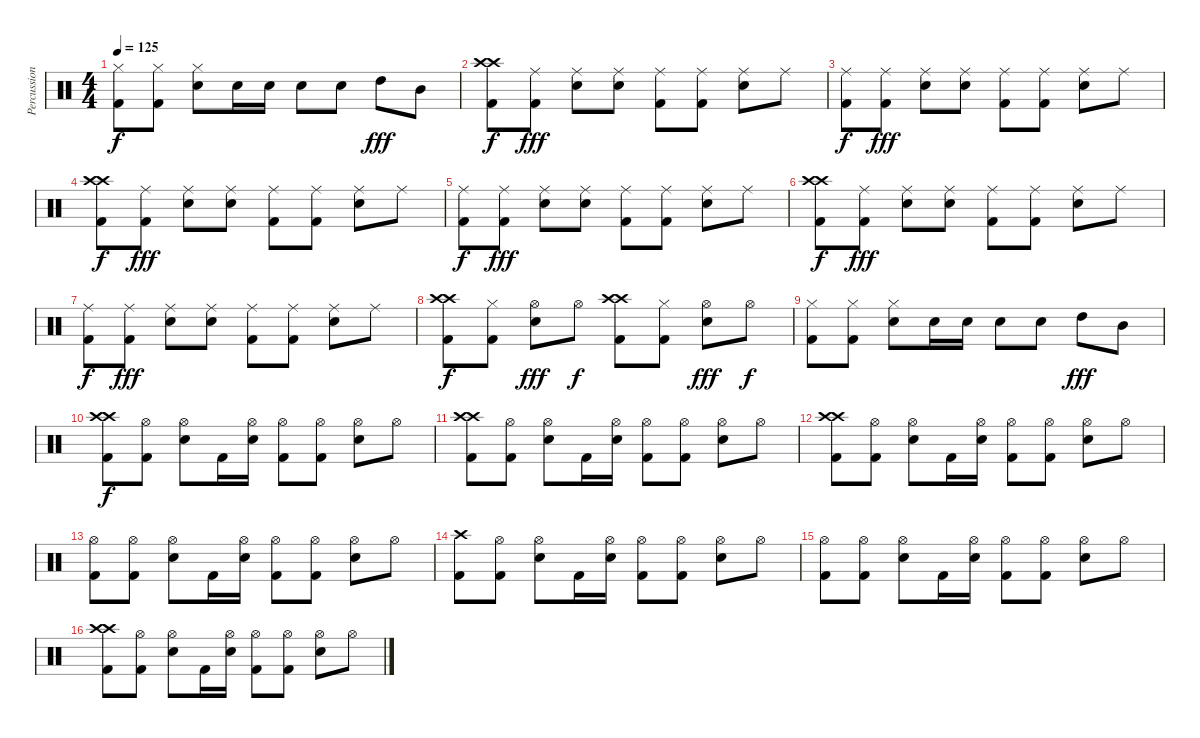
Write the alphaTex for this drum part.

\track ("Percussion" "Percussion") {instrument percussion}
\staff {score}
\articulation defaults
\ts (4 4)
\tempo 125
\clef neutral
\ks c
("Hi-Hat (closed)" "Kick (hit) 2").8{dy f} ("Hi-Hat (closed)" "Kick (hit) 2").8 ("Hi-Hat (closed)" "Electric Snare (hit)").8 "Electric Snare (hit)".16 "Electric Snare (hit)".16 "Electric Snare (hit)".8 "Electric Snare (hit)".8 "High Tom (hit)".8{dy fff} "Mid Tom (hit)".8 |
("Crash high (hit)" "Kick (hit) 2" "Crash high (hit)").8{dy f} ("Ride (middle)" "Kick (hit) 2").8{dy fff} ("Ride (middle)" "Electric Snare (hit)").8 ("Ride (middle)" "Electric Snare (hit)").8 ("Ride (middle)" "Kick (hit) 2").8 ("Ride (middle)" "Kick (hit) 2").8 ("Ride (middle)" "Electric Snare (hit)").8 "Ride (middle)".8 |
("Ride (middle)" "Kick (hit) 2").8{dy f} ("Ride (middle)" "Kick (hit) 2").8{dy fff} ("Ride (middle)" "Electric Snare (hit)").8 ("Ride (middle)" "Electric Snare (hit)").8 ("Ride (middle)" "Kick (hit) 2").8 ("Ride (middle)" "Kick (hit) 2").8 ("Ride (middle)" "Electric Snare (hit)").8 "Ride (middle)".8 |
("Crash high (hit)" "Kick (hit) 2" "Crash high (hit)").8{dy f} ("Ride (middle)" "Kick (hit) 2").8{dy fff} ("Ride (middle)" "Electric Snare (hit)").8 ("Ride (middle)" "Electric Snare (hit)").8 ("Ride (middle)" "Kick (hit) 2").8 ("Ride (middle)" "Kick (hit) 2").8 ("Ride (middle)" "Electric Snare (hit)").8 "Ride (middle)".8 |
("Ride (middle)" "Kick (hit) 2").8{dy f} ("Ride (middle)" "Kick (hit) 2").8{dy fff} ("Ride (middle)" "Electric Snare (hit)").8 ("Ride (middle)" "Electric Snare (hit)").8 ("Ride (middle)" "Kick (hit) 2").8 ("Ride (middle)" "Kick (hit) 2").8 ("Ride (middle)" "Electric Snare (hit)").8 "Ride (middle)".8 |
("Crash high (hit)" "Kick (hit) 2" "Crash high (hit)").8{dy f} ("Ride (middle)" "Kick (hit) 2").8{dy fff} ("Ride (middle)" "Electric Snare (hit)").8 ("Ride (middle)" "Electric Snare (hit)").8 ("Ride (middle)" "Kick (hit) 2").8 ("Ride (middle)" "Kick (hit) 2").8 ("Ride (middle)" "Electric Snare (hit)").8 "Ride (middle)".8 |
("Ride (middle)" "Kick (hit) 2").8{dy f} ("Ride (middle)" "Kick (hit) 2").8{dy fff} ("Ride (middle)" "Electric Snare (hit)").8 ("Ride (middle)" "Electric Snare (hit)").8 ("Ride (middle)" "Kick (hit) 2").8 ("Ride (middle)" "Kick (hit) 2").8 ("Ride (middle)" "Electric Snare (hit)").8 "Ride (middle)".8 |
("Crash high (hit)" "Kick (hit) 2" "Crash high (hit)").8{dy f} ("Hi-Hat (closed)" "Kick (hit) 2").8 ("Hi-Hat (open)" "Electric Snare (hit)").8{dy fff} "Hi-Hat (open)".8{dy f} ("Crash high (hit)" "Kick (hit) 2" "Crash high (hit)").8 ("Hi-Hat (closed)" "Kick (hit) 2").8 ("Hi-Hat (open)" "Electric Snare (hit)").8{dy fff} "Hi-Hat (open)".8{dy f} |
("Hi-Hat (closed)" "Kick (hit) 2").8 ("Hi-Hat (closed)" "Kick (hit) 2").8 ("Hi-Hat (closed)" "Electric Snare (hit)").8 "Electric Snare (hit)".16 "Electric Snare (hit)".16 "Electric Snare (hit)".8 "Electric Snare (hit)".8 "High Tom (hit)".8{dy fff} "Mid Tom (hit)".8 |
("Crash high (hit)" "Kick (hit) 2" "Crash high (hit)").8{dy f} ("Hi-Hat (open)" "Kick (hit) 2").8 ("Hi-Hat (open)" "Electric Snare (hit)").8 "Kick (hit) 2".16 ("Hi-Hat (open)" "Electric Snare (hit)").16 ("Hi-Hat (open)" "Kick (hit) 2").8 ("Hi-Hat (open)" "Kick (hit) 2").8 ("Hi-Hat (open)" "Electric Snare (hit)").8 "Hi-Hat (open)".8 |
("Crash high (hit)" "Kick (hit) 2" "Crash high (hit)").8 ("Hi-Hat (open)" "Kick (hit) 2").8 ("Hi-Hat (open)" "Electric Snare (hit)").8 "Kick (hit) 2".16 ("Hi-Hat (open)" "Electric Snare (hit)").16 ("Hi-Hat (open)" "Kick (hit) 2").8 ("Hi-Hat (open)" "Kick (hit) 2").8 ("Hi-Hat (open)" "Electric Snare (hit)").8 "Hi-Hat (open)".8 |
("Crash high (hit)" "Kick (hit) 2" "Crash high (hit)").8 ("Hi-Hat (open)" "Kick (hit) 2").8 ("Hi-Hat (open)" "Electric Snare (hit)").8 "Kick (hit) 2".16 ("Hi-Hat (open)" "Electric Snare (hit)").16 ("Hi-Hat (open)" "Kick (hit) 2").8 ("Hi-Hat (open)" "Kick (hit) 2").8 ("Hi-Hat (open)" "Electric Snare (hit)").8 "Hi-Hat (open)".8 |
("Hi-Hat (open)" "Kick (hit) 2").8 ("Hi-Hat (open)" "Kick (hit) 2").8 ("Hi-Hat (open)" "Electric Snare (hit)").8 "Kick (hit) 2".16 ("Hi-Hat (open)" "Electric Snare (hit)").16 ("Hi-Hat (open)" "Kick (hit) 2").8 ("Hi-Hat (open)" "Kick (hit) 2").8 ("Hi-Hat (open)" "Electric Snare (hit)").8 "Hi-Hat (open)".8 |
("Crash high (hit)" "Kick (hit) 2").8 ("Hi-Hat (open)" "Kick (hit) 2").8 ("Hi-Hat (open)" "Electric Snare (hit)").8 "Kick (hit) 2".16 ("Hi-Hat (open)" "Electric Snare (hit)").16 ("Hi-Hat (open)" "Kick (hit) 2").8 ("Hi-Hat (open)" "Kick (hit) 2").8 ("Hi-Hat (open)" "Electric Snare (hit)").8 "Hi-Hat (open)".8 |
("Hi-Hat (open)" "Kick (hit) 2").8 ("Hi-Hat (open)" "Kick (hit) 2").8 ("Hi-Hat (open)" "Electric Snare (hit)").8 "Kick (hit) 2".16 ("Hi-Hat (open)" "Electric Snare (hit)").16 ("Hi-Hat (open)" "Kick (hit) 2").8 ("Hi-Hat (open)" "Kick (hit) 2").8 ("Hi-Hat (open)" "Electric Snare (hit)").8 "Hi-Hat (open)".8 |
("Crash high (hit)" "Kick (hit) 2" "Crash high (hit)").8 ("Hi-Hat (open)" "Kick (hit) 2").8 ("Hi-Hat (open)" "Electric Snare (hit)").8 "Kick (hit) 2".16 ("Hi-Hat (open)" "Electric Snare (hit)").16 ("Hi-Hat (open)" "Kick (hit) 2").8 ("Hi-Hat (open)" "Kick (hit) 2").8 ("Hi-Hat (open)" "Electric Snare (hit)").8 "Hi-Hat (open)".8
